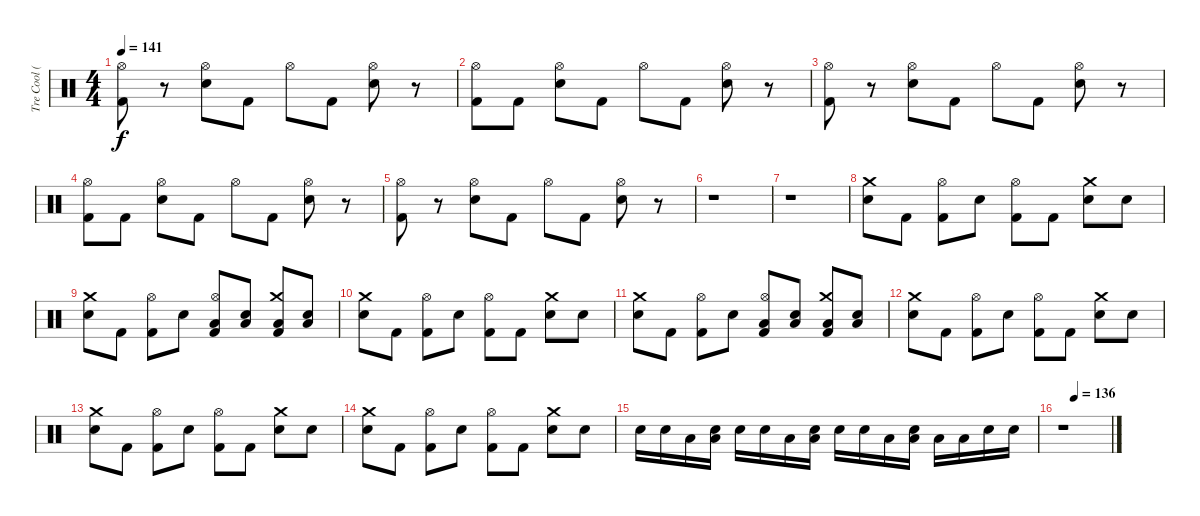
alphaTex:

\track ("Tre Cool (Drums)" "Tre Cool (") {instrument percussion}
\staff {score}
\articulation defaults
\ts (4 4)
\tempo 141
\clef neutral
\ks c
("Kick (hit) 2" "Hi-Hat (open)").8{dy f} r.8 ("Electric Snare (hit)" "Hi-Hat (open)").8 "Kick (hit) 2".8 "Hi-Hat (open)".8 "Kick (hit) 2".8 ("Electric Snare (hit)" "Hi-Hat (open)").8 r.8 |
("Kick (hit) 2" "Hi-Hat (open)").8 "Kick (hit) 2".8 ("Electric Snare (hit)" "Hi-Hat (open)").8 "Kick (hit) 2".8 "Hi-Hat (open)".8 "Kick (hit) 2".8 ("Electric Snare (hit)" "Hi-Hat (open)").8 r.8 |
("Kick (hit) 2" "Hi-Hat (open)").8 r.8 ("Electric Snare (hit)" "Hi-Hat (open)").8 "Kick (hit) 2".8 "Hi-Hat (open)".8 "Kick (hit) 2".8 ("Electric Snare (hit)" "Hi-Hat (open)").8 r.8 |
("Kick (hit) 2" "Hi-Hat (open)").8 "Kick (hit) 2".8 ("Electric Snare (hit)" "Hi-Hat (open)").8 "Kick (hit) 2".8 "Hi-Hat (open)".8 "Kick (hit) 2".8 ("Electric Snare (hit)" "Hi-Hat (open)").8 r.8 |
("Kick (hit) 2" "Hi-Hat (open)").8 r.8 ("Electric Snare (hit)" "Hi-Hat (open)").8 "Kick (hit) 2".8 "Hi-Hat (open)".8 "Kick (hit) 2".8 ("Electric Snare (hit)" "Hi-Hat (open)").8 r.8 |
r.1 |
r.1 |
("Electric Snare (hit)" "Crash medium (hit)").8 "Kick (hit) 2".8 ("Kick (hit) 2" "Hi-Hat (open)").8 "Electric Snare (hit)".8 ("Kick (hit) 2" "Hi-Hat (open)").8 "Kick (hit) 2".8 ("Electric Snare (hit)" "Crash medium (hit)").8 "Electric Snare (hit)".8 |
("Electric Snare (hit)" "Crash medium (hit)").8 "Kick (hit) 2".8 ("Kick (hit) 2" "Hi-Hat (open)").8 "Electric Snare (hit)".8 ("Kick (hit) 2" "Low Floor Tom (hit)" "Hi-Hat (open)").8 ("Low Floor Tom (hit)" "Electric Snare (hit)").8 ("Kick (hit) 2" "Low Floor Tom (hit)" "Crash medium (hit)").8 ("Low Floor Tom (hit)" "Electric Snare (hit)").8 |
("Electric Snare (hit)" "Crash medium (hit)").8 "Kick (hit) 2".8 ("Kick (hit) 2" "Hi-Hat (open)").8 "Electric Snare (hit)".8 ("Kick (hit) 2" "Hi-Hat (open)").8 "Kick (hit) 2".8 ("Electric Snare (hit)" "Crash medium (hit)").8 "Electric Snare (hit)".8 |
("Electric Snare (hit)" "Crash medium (hit)").8 "Kick (hit) 2".8 ("Kick (hit) 2" "Hi-Hat (open)").8 "Electric Snare (hit)".8 ("Kick (hit) 2" "Low Floor Tom (hit)" "Hi-Hat (open)").8 ("Low Floor Tom (hit)" "Electric Snare (hit)").8 ("Kick (hit) 2" "Low Floor Tom (hit)" "Crash medium (hit)").8 ("Low Floor Tom (hit)" "Electric Snare (hit)").8 |
("Electric Snare (hit)" "Crash medium (hit)").8 "Kick (hit) 2".8 ("Kick (hit) 2" "Hi-Hat (open)").8 "Electric Snare (hit)".8 ("Kick (hit) 2" "Hi-Hat (open)").8 "Kick (hit) 2".8 ("Electric Snare (hit)" "Crash medium (hit)").8 "Electric Snare (hit)".8 |
("Electric Snare (hit)" "Crash medium (hit)").8 "Kick (hit) 2".8 ("Kick (hit) 2" "Hi-Hat (open)").8 "Electric Snare (hit)".8 ("Kick (hit) 2" "Hi-Hat (open)").8 "Kick (hit) 2".8 ("Electric Snare (hit)" "Crash medium (hit)").8 "Electric Snare (hit)".8 |
("Electric Snare (hit)" "Crash medium (hit)").8 "Kick (hit) 2".8 ("Kick (hit) 2" "Hi-Hat (open)").8 "Electric Snare (hit)".8 ("Kick (hit) 2" "Hi-Hat (open)").8 "Kick (hit) 2".8 ("Electric Snare (hit)" "Crash medium (hit)").8 "Electric Snare (hit)".8 |
"Electric Snare (hit)".16 "Electric Snare (hit)".16 "Low Floor Tom (hit)".16 ("Low Floor Tom (hit)" "Electric Snare (hit)").16 "Electric Snare (hit)".16 "Electric Snare (hit)".16 "Low Floor Tom (hit)".16 ("Low Floor Tom (hit)" "Electric Snare (hit)").16 "Electric Snare (hit)".16 "Electric Snare (hit)".16 "Low Floor Tom (hit)".16 ("Low Floor Tom (hit)" "Electric Snare (hit)").16 "Low Floor Tom (hit)".16 "Low Floor Tom (hit)".16 "Electric Snare (hit)".16 "Electric Snare (hit)".16 |
\tempo (136 0.25)
r.1
